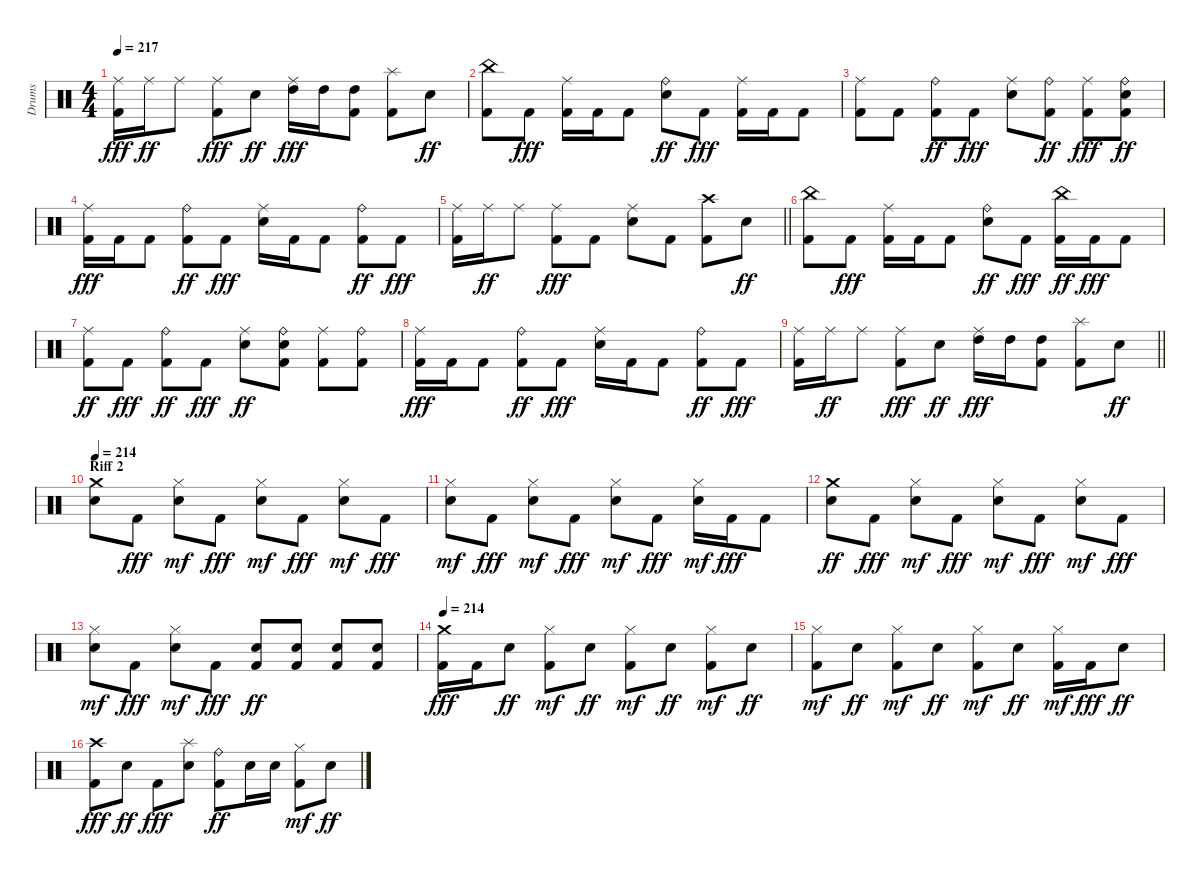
\track ("Drums" "Drums") {instrument percussion}
\staff {score}
\articulation defaults
\ts (4 4)
\tempo 217
\clef neutral
\ks c
("Kick (hit) 2" "Ride (middle)").16{dy fff} "Ride (middle)".16{dy ff} "Ride (middle)".8 ("Kick (hit) 2" "Ride (middle)").8{dy fff} "Snare (hit) 2".8{dy ff} ("High Tom (hit)" "Ride (middle)").16{dy fff} "High Tom (hit)".16 ("Kick (hit) 2" "High Tom (hit)").8 ("Kick (hit) 2" "Splash (hit)").8 "Snare (hit) 2".8{dy ff} |
("Kick (hit) 2" "China (hit)").8 "Kick (hit) 2".8{dy fff} ("Kick (hit) 2" "Ride (middle)").16 "Kick (hit) 2".16 "Kick (hit) 2".8 ("Snare (hit) 2" "Ride (bell)").8{dy ff} "Kick (hit) 2".8{dy fff} ("Kick (hit) 2" "Ride (middle)").16 "Kick (hit) 2".16 "Kick (hit) 2".8 |
("Kick (hit) 2" "Ride (middle)").8 "Kick (hit) 2".8 ("Kick (hit) 2" "Ride (bell)").8{dy ff} "Kick (hit) 2".8{dy fff} ("Snare (hit) 2" "Ride (middle)").8 ("Kick (hit) 2" "Ride (bell)").8{dy ff} ("Kick (hit) 2" "Ride (middle)").8{dy fff} ("Kick (hit) 2" "Snare (hit) 2" "Ride (bell)").8{dy ff} |
("Kick (hit) 2" "Ride (middle)").16{dy fff} "Kick (hit) 2".16 "Kick (hit) 2".8 ("Kick (hit) 2" "Ride (bell)").8{dy ff} "Kick (hit) 2".8{dy fff} ("Snare (hit) 2" "Ride (middle)").16 "Kick (hit) 2".16 "Kick (hit) 2".8 ("Kick (hit) 2" "Ride (bell)").8{dy ff} "Kick (hit) 2".8{dy fff} |
\barLineRight lightlight
("Kick (hit) 2" "Ride (middle)").16 "Ride (middle)".16{dy ff} "Ride (middle)".8 ("Kick (hit) 2" "Ride (middle)").8{dy fff} "Kick (hit) 2".8 ("Snare (hit) 2" "Ride (middle)").8 "Kick (hit) 2".8 ("Kick (hit) 2" "Crash high (hit)").8 "Snare (hit) 2".8{dy ff} |
("Kick (hit) 2" "China (hit)").8 "Kick (hit) 2".8{dy fff} ("Kick (hit) 2" "Ride (middle)").16 "Kick (hit) 2".16 "Kick (hit) 2".8 ("Snare (hit) 2" "Ride (bell)").8{dy ff} "Kick (hit) 2".8{dy fff} ("Kick (hit) 2" "China (hit)").16{dy ff} "Kick (hit) 2".16{dy fff} "Kick (hit) 2".8 |
("Kick (hit) 2" "Ride (middle)").8{dy ff} "Kick (hit) 2".8{dy fff} ("Kick (hit) 2" "Ride (bell)").8{dy ff} "Kick (hit) 2".8{dy fff} ("Snare (hit) 2" "Ride (middle)").8{dy ff} ("Kick (hit) 2" "Snare (hit) 2" "Ride (bell)").8 ("Kick (hit) 2" "Ride (middle)").8 ("Kick (hit) 2" "Ride (bell)").8 |
("Kick (hit) 2" "Ride (middle)").16{dy fff} "Kick (hit) 2".16 "Kick (hit) 2".8 ("Kick (hit) 2" "Ride (bell)").8{dy ff} "Kick (hit) 2".8{dy fff} ("Snare (hit) 2" "Ride (middle)").16 "Kick (hit) 2".16 "Kick (hit) 2".8 ("Kick (hit) 2" "Ride (bell)").8{dy ff} "Kick (hit) 2".8{dy fff} |
\barLineRight lightlight
("Kick (hit) 2" "Ride (middle)").16 "Ride (middle)".16{dy ff} "Ride (middle)".8 ("Kick (hit) 2" "Ride (middle)").8{dy fff} "Snare (hit) 2".8{dy ff} ("High Tom (hit)" "Ride (middle)").16{dy fff} "High Tom (hit)".16 ("Kick (hit) 2" "High Tom (hit)").8 ("Kick (hit) 2" "Splash (hit)").8 "Snare (hit) 2".8{dy ff} |
\section ("" "Riff 2")
\tempo 214
("Snare (hit) 2" "Crash medium (hit)").8 "Kick (hit) 2".8{dy fff} ("Snare (hit) 2" "Hi-Hat (closed)").8{dy mf} "Kick (hit) 2".8{dy fff} ("Snare (hit) 2" "Hi-Hat (closed)").8{dy mf} "Kick (hit) 2".8{dy fff} ("Snare (hit) 2" "Hi-Hat (closed)").8{dy mf} "Kick (hit) 2".8{dy fff} |
("Snare (hit) 2" "Hi-Hat (closed)").8{dy mf} "Kick (hit) 2".8{dy fff} ("Snare (hit) 2" "Hi-Hat (closed)").8{dy mf} "Kick (hit) 2".8{dy fff} ("Snare (hit) 2" "Hi-Hat (closed)").8{dy mf} "Kick (hit) 2".8{dy fff} ("Snare (hit) 2" "Hi-Hat (closed)").16{dy mf} "Kick (hit) 2".16{dy fff} "Kick (hit) 2".8 |
("Snare (hit) 2" "Crash medium (hit)").8{dy ff} "Kick (hit) 2".8{dy fff} ("Snare (hit) 2" "Hi-Hat (closed)").8{dy mf} "Kick (hit) 2".8{dy fff} ("Snare (hit) 2" "Hi-Hat (closed)").8{dy mf} "Kick (hit) 2".8{dy fff} ("Snare (hit) 2" "Hi-Hat (closed)").8{dy mf} "Kick (hit) 2".8{dy fff} |
("Snare (hit) 2" "Hi-Hat (closed)").8{dy mf} "Kick (hit) 2".8{dy fff} ("Snare (hit) 2" "Hi-Hat (closed)").8{dy mf} "Kick (hit) 2".8{dy fff} ("Kick (hit) 2" "Snare (hit) 2").8{dy ff} ("Kick (hit) 2" "Snare (hit) 2").8 ("Kick (hit) 2" "Snare (hit) 2").8 ("Kick (hit) 2" "Snare (hit) 2").8 |
\tempo 214
("Kick (hit) 2" "Crash medium (hit)").16{dy fff} "Kick (hit) 2".16 "Snare (hit) 2".8{dy ff} ("Kick (hit) 2" "Hi-Hat (closed)").8{dy mf} "Snare (hit) 2".8{dy ff} ("Kick (hit) 2" "Hi-Hat (closed)").8{dy mf} "Snare (hit) 2".8{dy ff} ("Kick (hit) 2" "Hi-Hat (closed)").8{dy mf} "Snare (hit) 2".8{dy ff} |
("Kick (hit) 2" "Hi-Hat (closed)").8{dy mf} "Snare (hit) 2".8{dy ff} ("Kick (hit) 2" "Hi-Hat (closed)").8{dy mf} "Snare (hit) 2".8{dy ff} ("Kick (hit) 2" "Hi-Hat (closed)").8{dy mf} "Snare (hit) 2".8{dy ff} ("Kick (hit) 2" "Hi-Hat (closed)").16{dy mf} "Kick (hit) 2".16{dy fff} "Snare (hit) 2".8{dy ff} |
("Kick (hit) 2" "Crash high (hit)").8{dy fff} "Snare (hit) 2".8{dy ff} "Kick (hit) 2".8{dy fff} ("Snare (hit) 2" "Splash (hit)").8 ("Kick (hit) 2" "Ride (bell)").8{dy ff} "Snare (hit) 2".16 "Snare (hit) 2".16 ("Kick (hit) 2" "Hi-Hat (closed)").8{dy mf} "Snare (hit) 2".8{dy ff}
